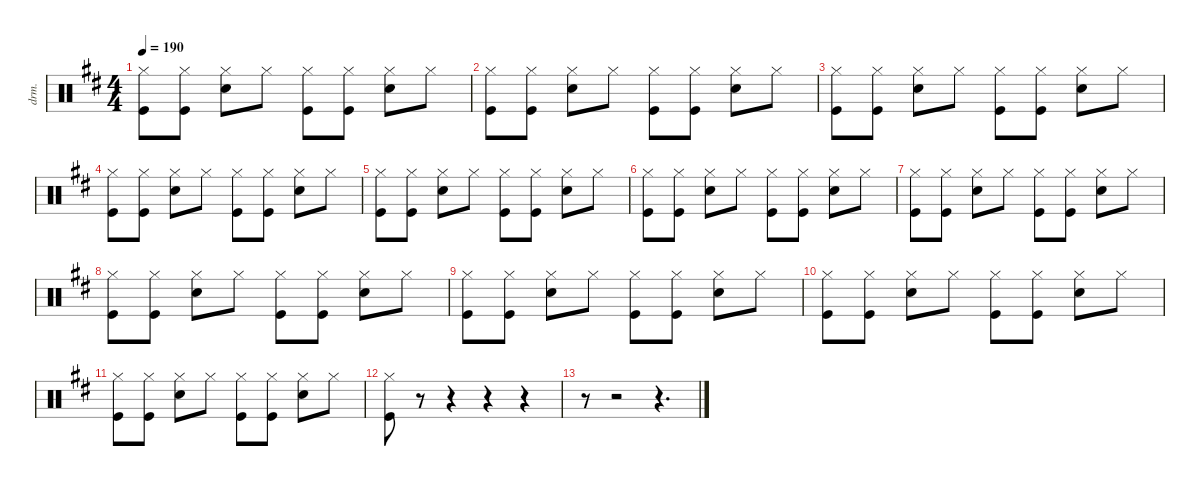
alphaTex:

\defaultSystemsLayout 4
\hideDynamics
\bracketExtendMode nobrackets
\otherSystemsTrackNameOrientation horizontal
\track ("Damon Wilson" "drm.") {instrument percussion}
\staff {score}
\articulation defaults
\ts (4 4)
\tempo 190
\clef neutral
\ks d
("Hi-Hat (closed)"{acc forcenatural} "Kick (hit)"{acc forcenatural}).8{dy f beam Down} ("Hi-Hat (closed)"{acc forcenatural} "Kick (hit)"{acc forcenatural}).8{beam Down} ("Hi-Hat (closed)"{acc forcenatural} "Snare (hit) 2"{acc forcenatural}).8{beam Down} "Hi-Hat (closed)"{acc forcenatural}.8{beam Down} ("Hi-Hat (closed)"{acc forcenatural} "Kick (hit)"{acc forcenatural}).8{beam Down} ("Hi-Hat (closed)"{acc forcenatural} "Kick (hit)"{acc forcenatural}).8{beam Down} ("Hi-Hat (closed)"{acc forcenatural} "Snare (hit) 2"{acc forcenatural}).8{beam Down} "Hi-Hat (closed)"{acc forcenatural}.8{beam Down} |
("Hi-Hat (closed)"{acc forcenatural} "Kick (hit)"{acc forcenatural}).8{beam Down} ("Hi-Hat (closed)"{acc forcenatural} "Kick (hit)"{acc forcenatural}).8{beam Down} ("Hi-Hat (closed)"{acc forcenatural} "Snare (hit) 2"{acc forcenatural}).8{beam Down} "Hi-Hat (closed)"{acc forcenatural}.8{beam Down} ("Hi-Hat (closed)"{acc forcenatural} "Kick (hit)"{acc forcenatural}).8{beam Down} ("Hi-Hat (closed)"{acc forcenatural} "Kick (hit)"{acc forcenatural}).8{beam Down} ("Hi-Hat (closed)"{acc forcenatural} "Snare (hit) 2"{acc forcenatural}).8{beam Down} "Hi-Hat (closed)"{acc forcenatural}.8{beam Down} |
("Hi-Hat (closed)"{acc forcenatural} "Kick (hit)"{acc forcenatural}).8{beam Down} ("Hi-Hat (closed)"{acc forcenatural} "Kick (hit)"{acc forcenatural}).8{beam Down} ("Hi-Hat (closed)"{acc forcenatural} "Snare (hit) 2"{acc forcenatural}).8{beam Down} "Hi-Hat (closed)"{acc forcenatural}.8{beam Down} ("Hi-Hat (closed)"{acc forcenatural} "Kick (hit)"{acc forcenatural}).8{beam Down} ("Hi-Hat (closed)"{acc forcenatural} "Kick (hit)"{acc forcenatural}).8{beam Down} ("Hi-Hat (closed)"{acc forcenatural} "Snare (hit) 2"{acc forcenatural}).8{beam Down} "Hi-Hat (closed)"{acc forcenatural}.8{beam Down} |
("Hi-Hat (closed)"{acc forcenatural} "Kick (hit)"{acc forcenatural}).8{beam Down} ("Hi-Hat (closed)"{acc forcenatural} "Kick (hit)"{acc forcenatural}).8{beam Down} ("Hi-Hat (closed)"{acc forcenatural} "Snare (hit) 2"{acc forcenatural}).8{beam Down} "Hi-Hat (closed)"{acc forcenatural}.8{beam Down} ("Hi-Hat (closed)"{acc forcenatural} "Kick (hit)"{acc forcenatural}).8{beam Down} ("Hi-Hat (closed)"{acc forcenatural} "Kick (hit)"{acc forcenatural}).8{beam Down} ("Hi-Hat (closed)"{acc forcenatural} "Snare (hit) 2"{acc forcenatural}).8{beam Down} "Hi-Hat (closed)"{acc forcenatural}.8{beam Down} |
("Hi-Hat (closed)"{acc forcenatural} "Kick (hit)"{acc forcenatural}).8{beam Down} ("Hi-Hat (closed)"{acc forcenatural} "Kick (hit)"{acc forcenatural}).8{beam Down} ("Hi-Hat (closed)"{acc forcenatural} "Snare (hit) 2"{acc forcenatural}).8{beam Down} "Hi-Hat (closed)"{acc forcenatural}.8{beam Down} ("Hi-Hat (closed)"{acc forcenatural} "Kick (hit)"{acc forcenatural}).8{beam Down} ("Hi-Hat (closed)"{acc forcenatural} "Kick (hit)"{acc forcenatural}).8{beam Down} ("Hi-Hat (closed)"{acc forcenatural} "Snare (hit) 2"{acc forcenatural}).8{beam Down} "Hi-Hat (closed)"{acc forcenatural}.8{beam Down} |
("Hi-Hat (closed)"{acc forcenatural} "Kick (hit)"{acc forcenatural}).8{beam Down} ("Hi-Hat (closed)"{acc forcenatural} "Kick (hit)"{acc forcenatural}).8{beam Down} ("Hi-Hat (closed)"{acc forcenatural} "Snare (hit) 2"{acc forcenatural}).8{beam Down} "Hi-Hat (closed)"{acc forcenatural}.8{beam Down} ("Hi-Hat (closed)"{acc forcenatural} "Kick (hit)"{acc forcenatural}).8{beam Down} ("Hi-Hat (closed)"{acc forcenatural} "Kick (hit)"{acc forcenatural}).8{beam Down} ("Hi-Hat (closed)"{acc forcenatural} "Snare (hit) 2"{acc forcenatural}).8{beam Down} "Hi-Hat (closed)"{acc forcenatural}.8{beam Down} |
("Hi-Hat (closed)"{acc forcenatural} "Kick (hit)"{acc forcenatural}).8{beam Down} ("Hi-Hat (closed)"{acc forcenatural} "Kick (hit)"{acc forcenatural}).8{beam Down} ("Hi-Hat (closed)"{acc forcenatural} "Snare (hit) 2"{acc forcenatural}).8{beam Down} "Hi-Hat (closed)"{acc forcenatural}.8{beam Down} ("Hi-Hat (closed)"{acc forcenatural} "Kick (hit)"{acc forcenatural}).8{beam Down} ("Hi-Hat (closed)"{acc forcenatural} "Kick (hit)"{acc forcenatural}).8{beam Down} ("Hi-Hat (closed)"{acc forcenatural} "Snare (hit) 2"{acc forcenatural}).8{beam Down} "Hi-Hat (closed)"{acc forcenatural}.8{beam Down} |
("Hi-Hat (closed)"{acc forcenatural} "Kick (hit)"{acc forcenatural}).8{beam Down} ("Hi-Hat (closed)"{acc forcenatural} "Kick (hit)"{acc forcenatural}).8{beam Down} ("Hi-Hat (closed)"{acc forcenatural} "Snare (hit) 2"{acc forcenatural}).8{beam Down} "Hi-Hat (closed)"{acc forcenatural}.8{beam Down} ("Hi-Hat (closed)"{acc forcenatural} "Kick (hit)"{acc forcenatural}).8{beam Down} ("Hi-Hat (closed)"{acc forcenatural} "Kick (hit)"{acc forcenatural}).8{beam Down} ("Hi-Hat (closed)"{acc forcenatural} "Snare (hit) 2"{acc forcenatural}).8{beam Down} "Hi-Hat (closed)"{acc forcenatural}.8{beam Down} |
("Hi-Hat (closed)"{acc forcenatural} "Kick (hit)"{acc forcenatural}).8{beam Down} ("Hi-Hat (closed)"{acc forcenatural} "Kick (hit)"{acc forcenatural}).8{beam Down} ("Hi-Hat (closed)"{acc forcenatural} "Snare (hit) 2"{acc forcenatural}).8{beam Down} "Hi-Hat (closed)"{acc forcenatural}.8{beam Down} ("Hi-Hat (closed)"{acc forcenatural} "Kick (hit)"{acc forcenatural}).8{beam Down} ("Hi-Hat (closed)"{acc forcenatural} "Kick (hit)"{acc forcenatural}).8{beam Down} ("Hi-Hat (closed)"{acc forcenatural} "Snare (hit) 2"{acc forcenatural}).8{beam Down} "Hi-Hat (closed)"{acc forcenatural}.8{beam Down} |
("Hi-Hat (closed)"{acc forcenatural} "Kick (hit)"{acc forcenatural}).8{beam Down} ("Hi-Hat (closed)"{acc forcenatural} "Kick (hit)"{acc forcenatural}).8{beam Down} ("Hi-Hat (closed)"{acc forcenatural} "Snare (hit) 2"{acc forcenatural}).8{beam Down} "Hi-Hat (closed)"{acc forcenatural}.8{beam Down} ("Hi-Hat (closed)"{acc forcenatural} "Kick (hit)"{acc forcenatural}).8{beam Down} ("Hi-Hat (closed)"{acc forcenatural} "Kick (hit)"{acc forcenatural}).8{beam Down} ("Hi-Hat (closed)"{acc forcenatural} "Snare (hit) 2"{acc forcenatural}).8{beam Down} "Hi-Hat (closed)"{acc forcenatural}.8{beam Down} |
("Hi-Hat (closed)"{acc forcenatural} "Kick (hit)"{acc forcenatural}).8{beam Down} ("Hi-Hat (closed)"{acc forcenatural} "Kick (hit)"{acc forcenatural}).8{beam Down} ("Hi-Hat (closed)"{acc forcenatural} "Snare (hit) 2"{acc forcenatural}).8{beam Down} "Hi-Hat (closed)"{acc forcenatural}.8{beam Down} ("Hi-Hat (closed)"{acc forcenatural} "Kick (hit)"{acc forcenatural}).8{beam Down} ("Hi-Hat (closed)"{acc forcenatural} "Kick (hit)"{acc forcenatural}).8{beam Down} ("Hi-Hat (closed)"{acc forcenatural} "Snare (hit) 2"{acc forcenatural}).8{beam Down} "Hi-Hat (closed)"{acc forcenatural}.8{beam Down} |
("Hi-Hat (closed)"{acc forcenatural} "Kick (hit)"{acc forcenatural}).8{beam Down} r.8{beam Down} r.4{beam Down} r.4{beam Down} r.4{beam Down} |
r.8{beam Down} r.2{beam Down} r.4{d beam Down}
